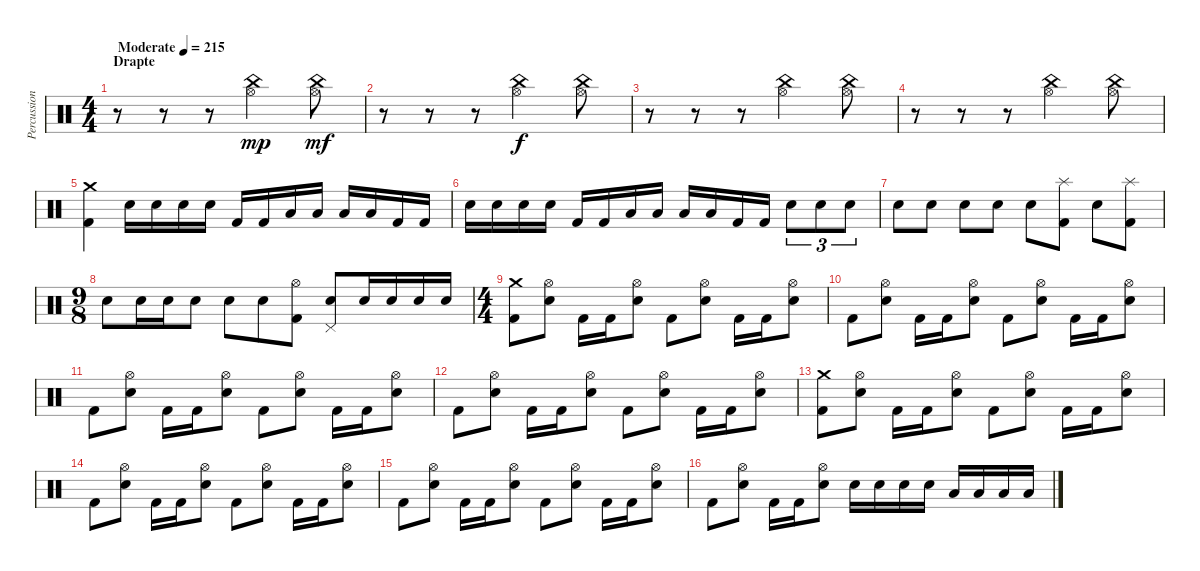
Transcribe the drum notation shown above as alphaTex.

\track ("Percussion" "Percussion") {instrument percussion}
\staff {score}
\articulation defaults
\ts (4 4)
\section ("" "Drapte")
\tempo (215 "Moderate")
\clef neutral
\ks c
r.8{dy mp} r.8 r.8 ("China (hit)" "Hi-Hat (open)").2 ("China (hit)" "Hi-Hat (open)").8{dy mf} |
r.8 r.8 r.8 ("China (hit)" "Hi-Hat (open)").2{dy f} ("China (hit)" "Hi-Hat (open)").8 |
r.8 r.8 r.8 ("China (hit)" "Hi-Hat (open)").2 ("China (hit)" "Hi-Hat (open)").8 |
r.8 r.8 r.8 ("China (hit)" "Hi-Hat (open)").2 ("China (hit)" "Hi-Hat (open)").8 |
("Crash medium (hit)" "Kick (hit) 2").4 "Electric Snare (hit)".16 "Electric Snare (hit)".16 "Electric Snare (hit)".16 "Electric Snare (hit)".16 "Kick (hit) 2".16 "Kick (hit) 2".16 "Low Tom (hit)".16 "Low Tom (hit)".16 "Low Tom (hit)".16 "Low Tom (hit)".16 "Kick (hit) 2".16 "Kick (hit) 2".16 |
"Electric Snare (hit)".16 "Electric Snare (hit)".16 "Electric Snare (hit)".16 "Electric Snare (hit)".16 "Kick (hit) 2".16 "Kick (hit) 2".16 "Low Tom (hit)".16 "Low Tom (hit)".16 "Low Tom (hit)".16 "Low Tom (hit)".16 "Kick (hit) 2".16 "Kick (hit) 2".16 "Electric Snare (hit)".8{tu (3 2)} "Electric Snare (hit)".8{tu (3 2)} "Electric Snare (hit)".8{tu (3 2)} |
"Electric Snare (hit)".8 "Electric Snare (hit)".8 "Electric Snare (hit)".8 "Electric Snare (hit)".8 "Electric Snare (hit)".8 ("Splash (hit)" "Kick (hit) 2").8 "Electric Snare (hit)".8 ("Splash (hit)" "Kick (hit) 2").8 |
\ts (9 8)
"Electric Snare (hit)".8 "Electric Snare (hit)".16 "Electric Snare (hit)".16 "Electric Snare (hit)".8 "Electric Snare (hit)".8 "Electric Snare (hit)".8 ("Hi-Hat (open)" "Kick (hit) 2").8 ("Pedal Hi-Hat (hit)" "Electric Snare (hit)").8 "Electric Snare (hit)".16 "Electric Snare (hit)".16 "Electric Snare (hit)".16 "Electric Snare (hit)".16 |
\ts (4 4)
("Crash medium (hit)" "Kick (hit) 2").8 ("Hi-Hat (open)" "Electric Snare (hit)").8 "Kick (hit) 2".16 "Kick (hit) 2".16 ("Hi-Hat (open)" "Electric Snare (hit)").8 "Kick (hit) 2".8 ("Hi-Hat (open)" "Electric Snare (hit)").8 "Kick (hit) 2".16 "Kick (hit) 2".16 ("Hi-Hat (open)" "Electric Snare (hit)").8 |
"Kick (hit) 2".8 ("Hi-Hat (open)" "Electric Snare (hit)").8 "Kick (hit) 2".16 "Kick (hit) 2".16 ("Hi-Hat (open)" "Electric Snare (hit)").8 "Kick (hit) 2".8 ("Hi-Hat (open)" "Electric Snare (hit)").8 "Kick (hit) 2".16 "Kick (hit) 2".16 ("Hi-Hat (open)" "Electric Snare (hit)").8 |
"Kick (hit) 2".8 ("Hi-Hat (open)" "Electric Snare (hit)").8 "Kick (hit) 2".16 "Kick (hit) 2".16 ("Hi-Hat (open)" "Electric Snare (hit)").8 "Kick (hit) 2".8 ("Hi-Hat (open)" "Electric Snare (hit)").8 "Kick (hit) 2".16 "Kick (hit) 2".16 ("Hi-Hat (open)" "Electric Snare (hit)").8 |
"Kick (hit) 2".8 ("Hi-Hat (open)" "Electric Snare (hit)").8 "Kick (hit) 2".16 "Kick (hit) 2".16 ("Hi-Hat (open)" "Electric Snare (hit)").8 "Kick (hit) 2".8 ("Hi-Hat (open)" "Electric Snare (hit)").8 "Kick (hit) 2".16 "Kick (hit) 2".16 ("Hi-Hat (open)" "Electric Snare (hit)").8 |
("Crash medium (hit)" "Kick (hit) 2").8 ("Hi-Hat (open)" "Electric Snare (hit)").8 "Kick (hit) 2".16 "Kick (hit) 2".16 ("Hi-Hat (open)" "Electric Snare (hit)").8 "Kick (hit) 2".8 ("Hi-Hat (open)" "Electric Snare (hit)").8 "Kick (hit) 2".16 "Kick (hit) 2".16 ("Hi-Hat (open)" "Electric Snare (hit)").8 |
"Kick (hit) 2".8 ("Hi-Hat (open)" "Electric Snare (hit)").8 "Kick (hit) 2".16 "Kick (hit) 2".16 ("Hi-Hat (open)" "Electric Snare (hit)").8 "Kick (hit) 2".8 ("Hi-Hat (open)" "Electric Snare (hit)").8 "Kick (hit) 2".16 "Kick (hit) 2".16 ("Hi-Hat (open)" "Electric Snare (hit)").8 |
"Kick (hit) 2".8 ("Hi-Hat (open)" "Electric Snare (hit)").8 "Kick (hit) 2".16 "Kick (hit) 2".16 ("Hi-Hat (open)" "Electric Snare (hit)").8 "Kick (hit) 2".8 ("Hi-Hat (open)" "Electric Snare (hit)").8 "Kick (hit) 2".16 "Kick (hit) 2".16 ("Hi-Hat (open)" "Electric Snare (hit)").8 |
"Kick (hit) 2".8 ("Hi-Hat (open)" "Electric Snare (hit)").8 "Kick (hit) 2".16 "Kick (hit) 2".16 ("Hi-Hat (open)" "Electric Snare (hit)").8 "Electric Snare (hit)".16 "Electric Snare (hit)".16 "Electric Snare (hit)".16 "Electric Snare (hit)".16 "Low Tom (hit)".16 "Low Tom (hit)".16 "Low Tom (hit)".16 "Low Tom (hit)".16
